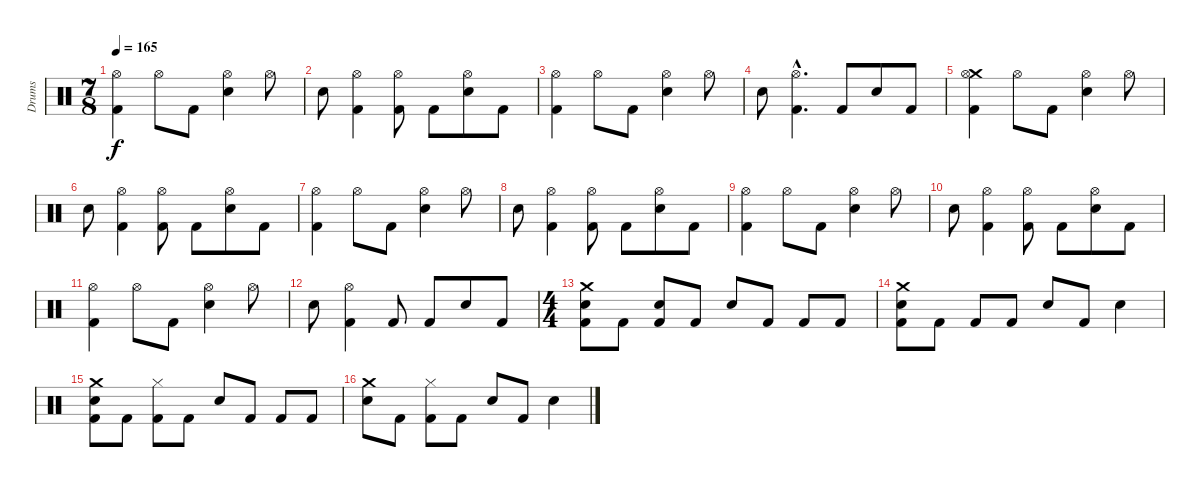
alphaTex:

\track ("Drums" "Drums") {instrument percussion}
\staff {score}
\articulation defaults
\ts (7 8)
\tempo 165
\clef neutral
\ks c
("Hi-Hat (open)" "Kick (hit) 2").4{dy f} "Hi-Hat (open)".8 "Kick (hit) 2".8 ("Hi-Hat (open)" "Electric Snare (hit)").4 "Hi-Hat (open)".8 |
"Snare (hit) 2".8 ("Hi-Hat (open)" "Kick (hit) 2").4 ("Hi-Hat (open)" "Kick (hit) 2").8 "Kick (hit) 2".8 ("Hi-Hat (open)" "Electric Snare (hit)").8 "Kick (hit) 2".8 |
("Hi-Hat (open)" "Kick (hit) 2").4 "Hi-Hat (open)".8 "Kick (hit) 2".8 ("Hi-Hat (open)" "Electric Snare (hit)").4 "Hi-Hat (open)".8 |
"Snare (hit) 2".8 ("Hi-Hat (open)"{hac} "Kick (hit) 2"{hac}).4{d} "Kick (hit) 2".8 "Electric Snare (hit)".8 "Kick (hit) 2".8 |
("Crash medium (hit)" "Hi-Hat (open)" "Kick (hit) 2").4 "Hi-Hat (open)".8 "Kick (hit) 2".8 ("Hi-Hat (open)" "Electric Snare (hit)").4 "Hi-Hat (open)".8 |
"Snare (hit) 2".8 ("Hi-Hat (open)" "Kick (hit) 2").4 ("Hi-Hat (open)" "Kick (hit) 2").8 "Kick (hit) 2".8 ("Hi-Hat (open)" "Electric Snare (hit)").8 "Kick (hit) 2".8 |
("Hi-Hat (open)" "Kick (hit) 2").4 "Hi-Hat (open)".8 "Kick (hit) 2".8 ("Hi-Hat (open)" "Electric Snare (hit)").4 "Hi-Hat (open)".8 |
"Snare (hit) 2".8 ("Hi-Hat (open)" "Kick (hit) 2").4 ("Hi-Hat (open)" "Kick (hit) 2").8 "Kick (hit) 2".8 ("Hi-Hat (open)" "Electric Snare (hit)").8 "Kick (hit) 2".8 |
("Hi-Hat (open)" "Kick (hit) 2").4 "Hi-Hat (open)".8 "Kick (hit) 2".8 ("Hi-Hat (open)" "Electric Snare (hit)").4 "Hi-Hat (open)".8 |
"Snare (hit) 2".8 ("Hi-Hat (open)" "Kick (hit) 2").4 ("Hi-Hat (open)" "Kick (hit) 2").8 "Kick (hit) 2".8 ("Hi-Hat (open)" "Electric Snare (hit)").8 "Kick (hit) 2".8 |
("Hi-Hat (open)" "Kick (hit) 2").4 "Hi-Hat (open)".8 "Kick (hit) 2".8 ("Hi-Hat (open)" "Electric Snare (hit)").4 "Hi-Hat (open)".8 |
"Snare (hit) 2".8 ("Hi-Hat (open)" "Kick (hit) 2").4 "Kick (hit) 2".8 "Kick (hit) 2".8 "Electric Snare (hit)".8 "Kick (hit) 2".8 |
\ts (4 4)
("Crash medium (hit)" "Snare (hit) 2" "Kick (hit) 2").8 "Kick (hit) 2".8 ("Snare (hit) 2" "Kick (hit) 2").8 "Kick (hit) 2".8 "Electric Snare (hit)".8 "Kick (hit) 2".8 "Kick (hit) 2".8 "Kick (hit) 2".8 |
("Crash medium (hit)" "Electric Snare (hit)" "Kick (hit) 2").8 "Kick (hit) 2".8 "Kick (hit) 2".8 "Kick (hit) 2".8 "Electric Snare (hit)".8 "Kick (hit) 2".8 "Electric Snare (hit)".4 |
("Crash medium (hit)" "Snare (hit) 2" "Kick (hit) 2").8 "Kick (hit) 2".8 ("Hi-Hat (closed)" "Kick (hit) 2").8 "Kick (hit) 2".8 "Electric Snare (hit)".8 "Kick (hit) 2".8 "Kick (hit) 2".8 "Kick (hit) 2".8 |
("Crash medium (hit)" "Electric Snare (hit)").8 "Kick (hit) 2".8 ("Hi-Hat (closed)" "Kick (hit) 2").8 "Kick (hit) 2".8 "Electric Snare (hit)".8 "Kick (hit) 2".8 "Electric Snare (hit)".4
